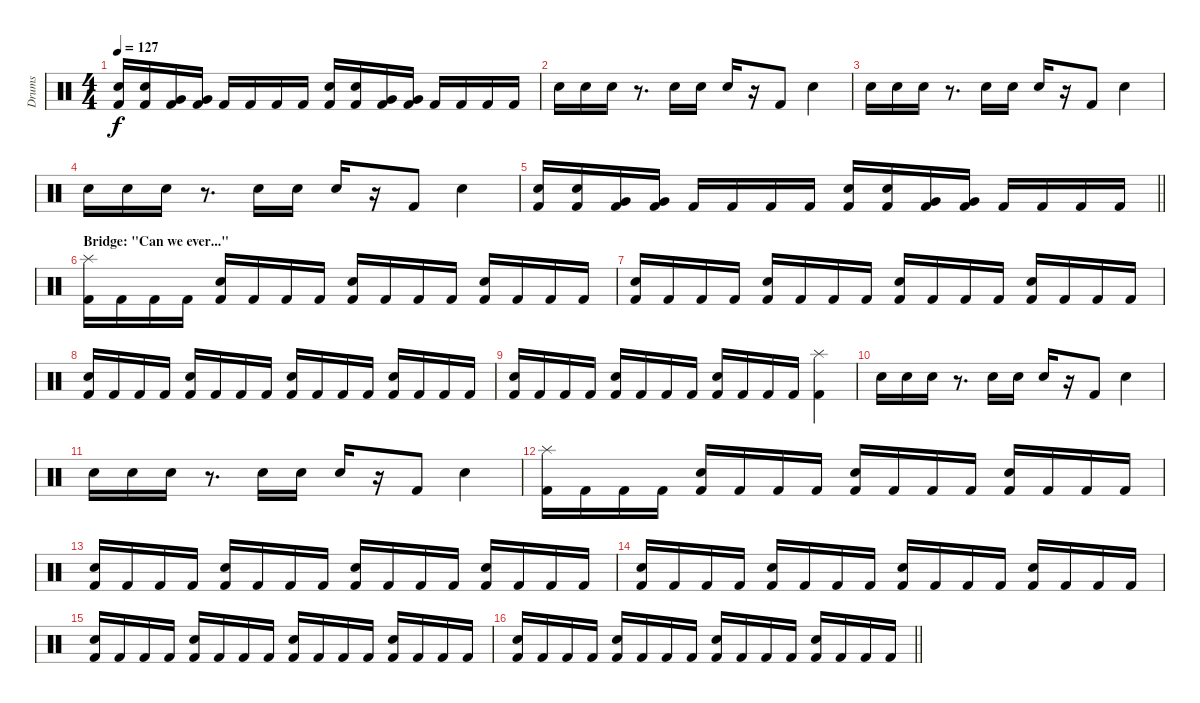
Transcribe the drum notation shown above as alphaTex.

\track ("Drums" "Drums") {instrument percussion}
\staff {score}
\articulation defaults
\ts (4 4)
\tempo 127
\clef neutral
\ks c
("Kick (hit) 2" "Electric Snare (hit)").16{dy f} ("Kick (hit) 2" "Electric Snare (hit)").16 ("Kick (hit) 2" "Very Low Tom (hit)").16 ("Kick (hit) 2" "Very Low Tom (hit)").16 "Kick (hit) 2".16 "Kick (hit) 2".16 "Kick (hit) 2".16 "Kick (hit) 2".16 ("Kick (hit) 2" "Electric Snare (hit)").16 ("Kick (hit) 2" "Electric Snare (hit)").16 ("Kick (hit) 2" "Very Low Tom (hit)").16 ("Kick (hit) 2" "Very Low Tom (hit)").16 "Kick (hit) 2".16 "Kick (hit) 2".16 "Kick (hit) 2".16 "Kick (hit) 2".16 |
"Electric Snare (hit)".16 "Electric Snare (hit)".16 "Electric Snare (hit)".16 r.8{d} "Electric Snare (hit)".16 "Electric Snare (hit)".16 "Electric Snare (hit)".16 r.16 "Kick (hit) 2".8 "Electric Snare (hit)".4 |
"Electric Snare (hit)".16 "Electric Snare (hit)".16 "Electric Snare (hit)".16 r.8{d} "Electric Snare (hit)".16 "Electric Snare (hit)".16 "Electric Snare (hit)".16 r.16 "Kick (hit) 2".8 "Electric Snare (hit)".4 |
"Electric Snare (hit)".16 "Electric Snare (hit)".16 "Electric Snare (hit)".16 r.8{d} "Electric Snare (hit)".16 "Electric Snare (hit)".16 "Electric Snare (hit)".16 r.16 "Kick (hit) 2".8 "Electric Snare (hit)".4 |
\barLineRight lightlight
("Kick (hit) 2" "Electric Snare (hit)").16 ("Kick (hit) 2" "Electric Snare (hit)").16 ("Kick (hit) 2" "Very Low Tom (hit)").16 ("Kick (hit) 2" "Very Low Tom (hit)").16 "Kick (hit) 2".16 "Kick (hit) 2".16 "Kick (hit) 2".16 "Kick (hit) 2".16 ("Kick (hit) 2" "Electric Snare (hit)").16 ("Kick (hit) 2" "Electric Snare (hit)").16 ("Kick (hit) 2" "Very Low Tom (hit)").16 ("Kick (hit) 2" "Very Low Tom (hit)").16 "Kick (hit) 2".16 "Kick (hit) 2".16 "Kick (hit) 2".16 "Kick (hit) 2".16 |
\section ("" "Bridge: \"Can we ever...\"")
("Kick (hit) 2" "Splash (hit)").16 "Kick (hit) 2".16 "Kick (hit) 2".16 "Kick (hit) 2".16 ("Kick (hit) 2" "Electric Snare (hit)").16 "Kick (hit) 2".16 "Kick (hit) 2".16 "Kick (hit) 2".16 ("Kick (hit) 2" "Electric Snare (hit)").16 "Kick (hit) 2".16 "Kick (hit) 2".16 "Kick (hit) 2".16 ("Kick (hit) 2" "Electric Snare (hit)").16 "Kick (hit) 2".16 "Kick (hit) 2".16 "Kick (hit) 2".16 |
("Kick (hit) 2" "Electric Snare (hit)").16 "Kick (hit) 2".16 "Kick (hit) 2".16 "Kick (hit) 2".16 ("Kick (hit) 2" "Electric Snare (hit)").16 "Kick (hit) 2".16 "Kick (hit) 2".16 "Kick (hit) 2".16 ("Kick (hit) 2" "Electric Snare (hit)").16 "Kick (hit) 2".16 "Kick (hit) 2".16 "Kick (hit) 2".16 ("Kick (hit) 2" "Electric Snare (hit)").16 "Kick (hit) 2".16 "Kick (hit) 2".16 "Kick (hit) 2".16 |
("Kick (hit) 2" "Electric Snare (hit)").16 "Kick (hit) 2".16 "Kick (hit) 2".16 "Kick (hit) 2".16 ("Kick (hit) 2" "Electric Snare (hit)").16 "Kick (hit) 2".16 "Kick (hit) 2".16 "Kick (hit) 2".16 ("Kick (hit) 2" "Electric Snare (hit)").16 "Kick (hit) 2".16 "Kick (hit) 2".16 "Kick (hit) 2".16 ("Kick (hit) 2" "Electric Snare (hit)").16 "Kick (hit) 2".16 "Kick (hit) 2".16 "Kick (hit) 2".16 |
("Kick (hit) 2" "Electric Snare (hit)").16 "Kick (hit) 2".16 "Kick (hit) 2".16 "Kick (hit) 2".16 ("Kick (hit) 2" "Electric Snare (hit)").16 "Kick (hit) 2".16 "Kick (hit) 2".16 "Kick (hit) 2".16 ("Kick (hit) 2" "Electric Snare (hit)").16 "Kick (hit) 2".16 "Kick (hit) 2".16 "Kick (hit) 2".16 ("Kick (hit) 2" "Splash (hit)").4 |
"Electric Snare (hit)".16 "Electric Snare (hit)".16 "Electric Snare (hit)".16 r.8{d} "Electric Snare (hit)".16 "Electric Snare (hit)".16 "Electric Snare (hit)".16 r.16 "Kick (hit) 2".8 "Electric Snare (hit)".4 |
"Electric Snare (hit)".16 "Electric Snare (hit)".16 "Electric Snare (hit)".16 r.8{d} "Electric Snare (hit)".16 "Electric Snare (hit)".16 "Electric Snare (hit)".16 r.16 "Kick (hit) 2".8 "Electric Snare (hit)".4 |
("Kick (hit) 2" "Splash (hit)").16 "Kick (hit) 2".16 "Kick (hit) 2".16 "Kick (hit) 2".16 ("Kick (hit) 2" "Electric Snare (hit)").16 "Kick (hit) 2".16 "Kick (hit) 2".16 "Kick (hit) 2".16 ("Kick (hit) 2" "Electric Snare (hit)").16 "Kick (hit) 2".16 "Kick (hit) 2".16 "Kick (hit) 2".16 ("Kick (hit) 2" "Electric Snare (hit)").16 "Kick (hit) 2".16 "Kick (hit) 2".16 "Kick (hit) 2".16 |
("Kick (hit) 2" "Electric Snare (hit)").16 "Kick (hit) 2".16 "Kick (hit) 2".16 "Kick (hit) 2".16 ("Kick (hit) 2" "Electric Snare (hit)").16 "Kick (hit) 2".16 "Kick (hit) 2".16 "Kick (hit) 2".16 ("Kick (hit) 2" "Electric Snare (hit)").16 "Kick (hit) 2".16 "Kick (hit) 2".16 "Kick (hit) 2".16 ("Kick (hit) 2" "Electric Snare (hit)").16 "Kick (hit) 2".16 "Kick (hit) 2".16 "Kick (hit) 2".16 |
("Kick (hit) 2" "Electric Snare (hit)").16 "Kick (hit) 2".16 "Kick (hit) 2".16 "Kick (hit) 2".16 ("Kick (hit) 2" "Electric Snare (hit)").16 "Kick (hit) 2".16 "Kick (hit) 2".16 "Kick (hit) 2".16 ("Kick (hit) 2" "Electric Snare (hit)").16 "Kick (hit) 2".16 "Kick (hit) 2".16 "Kick (hit) 2".16 ("Kick (hit) 2" "Electric Snare (hit)").16 "Kick (hit) 2".16 "Kick (hit) 2".16 "Kick (hit) 2".16 |
("Kick (hit) 2" "Electric Snare (hit)").16 "Kick (hit) 2".16 "Kick (hit) 2".16 "Kick (hit) 2".16 ("Kick (hit) 2" "Electric Snare (hit)").16 "Kick (hit) 2".16 "Kick (hit) 2".16 "Kick (hit) 2".16 ("Kick (hit) 2" "Electric Snare (hit)").16 "Kick (hit) 2".16 "Kick (hit) 2".16 "Kick (hit) 2".16 ("Kick (hit) 2" "Electric Snare (hit)").16 "Kick (hit) 2".16 "Kick (hit) 2".16 "Kick (hit) 2".16 |
\barLineRight lightlight
("Kick (hit) 2" "Electric Snare (hit)").16 "Kick (hit) 2".16 "Kick (hit) 2".16 "Kick (hit) 2".16 ("Kick (hit) 2" "Electric Snare (hit)").16 "Kick (hit) 2".16 "Kick (hit) 2".16 "Kick (hit) 2".16 ("Kick (hit) 2" "Electric Snare (hit)").16 "Kick (hit) 2".16 "Kick (hit) 2".16 "Kick (hit) 2".16 ("Kick (hit) 2" "Electric Snare (hit)").16 "Kick (hit) 2".16 "Kick (hit) 2".16 "Kick (hit) 2".16
